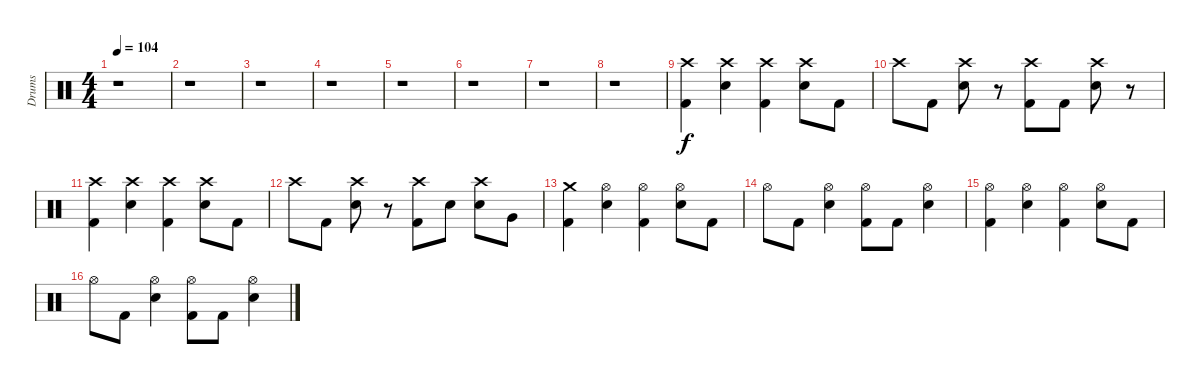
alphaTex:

\track ("Drums" "Drums") {instrument percussion}
\staff {score}
\articulation defaults
\ts (4 4)
\tempo 104
\clef neutral
\ks c
r.1{dy f} |
r.1 |
r.1 |
r.1 |
r.1 |
r.1 |
r.1 |
r.1 |
("Crash high (hit)" "Kick (hit) 2").4 ("Crash high (hit)" "Electric Snare (hit)").4 ("Crash high (hit)" "Kick (hit) 2").4 ("Crash high (hit)" "Electric Snare (hit)").8 "Kick (hit) 2".8 |
"Crash high (hit)".8 "Kick (hit) 2".8 ("Crash high (hit)" "Electric Snare (hit)").8 r.8 ("Crash high (hit)" "Kick (hit) 2").8 "Kick (hit) 2".8 ("Crash high (hit)" "Electric Snare (hit)").8 r.8 |
("Crash high (hit)" "Kick (hit) 2").4 ("Crash high (hit)" "Electric Snare (hit)").4 ("Crash high (hit)" "Kick (hit) 2").4 ("Crash high (hit)" "Electric Snare (hit)").8 "Kick (hit) 2".8 |
"Crash high (hit)".8 "Kick (hit) 2".8 ("Crash high (hit)" "Electric Snare (hit)").8 r.8 ("Crash high (hit)" "Kick (hit) 2").8 "Electric Snare (hit)".8 ("Crash high (hit)" "Electric Snare (hit)").8 "Very Low Tom (hit)".8 |
("Crash medium (hit)" "Kick (hit) 2").4 ("Hi-Hat (open)" "Electric Snare (hit)").4 ("Hi-Hat (open)" "Kick (hit) 2").4 ("Hi-Hat (open)" "Electric Snare (hit)").8 "Kick (hit) 2".8 |
"Hi-Hat (open)".8 "Kick (hit) 2".8 ("Hi-Hat (open)" "Electric Snare (hit)").4 ("Hi-Hat (open)" "Kick (hit) 2").8 "Kick (hit) 2".8 ("Hi-Hat (open)" "Electric Snare (hit)").4 |
("Hi-Hat (open)" "Kick (hit) 2").4 ("Hi-Hat (open)" "Electric Snare (hit)").4 ("Hi-Hat (open)" "Kick (hit) 2").4 ("Hi-Hat (open)" "Electric Snare (hit)").8 "Kick (hit) 2".8 |
"Hi-Hat (open)".8 "Kick (hit) 2".8 ("Hi-Hat (open)" "Electric Snare (hit)").4 ("Hi-Hat (open)" "Kick (hit) 2").8 "Kick (hit) 2".8 ("Hi-Hat (open)" "Electric Snare (hit)").4
